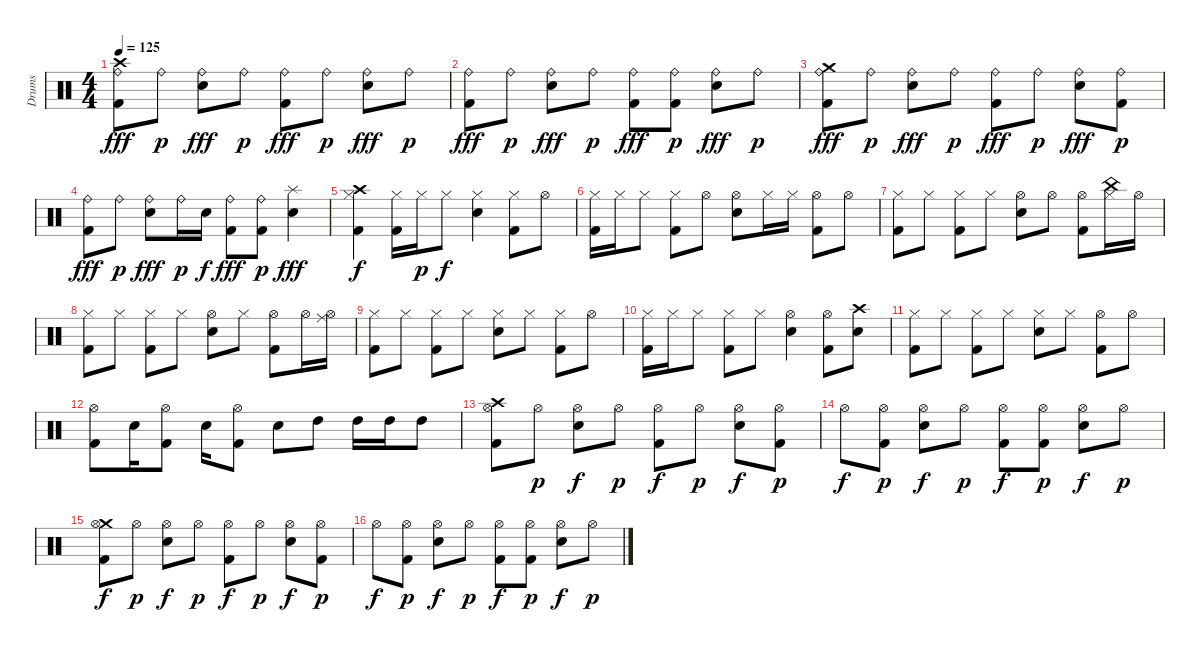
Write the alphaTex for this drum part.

\track ("Drums" "Drums") {instrument percussion}
\staff {score}
\articulation defaults
\ts (4 4)
\tempo 125
\clef neutral
\ks c
("Crash high (hit)" "Ride (bell)" "Kick (hit) 2").8{dy fff} "Ride (bell)".8{dy p} ("Ride (bell)" "Electric Snare (hit)").8{dy fff} "Ride (bell)".8{dy p} ("Ride (bell)" "Kick (hit) 2").8{dy fff} "Ride (bell)".8{dy p} ("Ride (bell)" "Electric Snare (hit)").8{dy fff} "Ride (bell)".8{dy p} |
("Ride (bell)" "Kick (hit) 2").8{dy fff} "Ride (bell)".8{dy p} ("Ride (bell)" "Electric Snare (hit)").8{dy fff} "Ride (bell)".8{dy p} ("Ride (bell)" "Kick (hit) 2").8{dy fff} ("Ride (bell)" "Kick (hit) 2").8{dy p} ("Ride (bell)" "Electric Snare (hit)").8{dy fff} "Ride (bell)".8{dy p} |
("Crash medium (hit)" "Ride (bell)" "Kick (hit) 2").8{dy fff} "Ride (bell)".8{dy p} ("Ride (bell)" "Electric Snare (hit)").8{dy fff} "Ride (bell)".8{dy p} ("Ride (bell)" "Kick (hit) 2").8{dy fff} "Ride (bell)".8{dy p} ("Ride (bell)" "Electric Snare (hit)").8{dy fff} ("Ride (bell)" "Kick (hit) 2").8{dy p} |
("Ride (bell)" "Kick (hit) 2").8{dy fff} "Ride (bell)".8{dy p} ("Ride (bell)" "Electric Snare (hit)").8{dy fff} "Ride (bell)".16{dy p} "Electric Snare (hit)".16{dy f} ("Ride (bell)" "Kick (hit) 2").8{dy fff} ("Ride (bell)" "Kick (hit) 2").8{dy p} ("Splash (hit)" "Electric Snare (hit)").4{dy fff} |
("Crash high (hit)" "Hi-Hat (closed)" "Kick (hit) 2").4{dy f} ("Hi-Hat (closed)" "Kick (hit) 2").16 "Hi-Hat (closed)".16{dy p} "Hi-Hat (closed)".8{dy f} ("Hi-Hat (closed)" "Electric Snare (hit)").4 ("Hi-Hat (closed)" "Kick (hit) 2").8 "Hi-Hat (open)".8 |
("Hi-Hat (closed)" "Kick (hit) 2").16 "Hi-Hat (closed)".16 "Hi-Hat (closed)".8 ("Hi-Hat (closed)" "Kick (hit) 2").8 "Hi-Hat (open)".8 ("Hi-Hat (open)" "Electric Snare (hit)").8 "Hi-Hat (closed)".16 "Hi-Hat (closed)".16 ("Hi-Hat (open)" "Kick (hit) 2").8 "Hi-Hat (open)".8 |
("Hi-Hat (closed)" "Kick (hit) 2").8 "Hi-Hat (closed)".8 ("Hi-Hat (closed)" "Kick (hit) 2").8 "Hi-Hat (closed)".8 ("Hi-Hat (open)" "Electric Snare (hit)").8 "Hi-Hat (open)".8 ("Hi-Hat (open)" "Kick (hit) 2").8 ("China (hit)" "Hi-Hat (closed)").16 "Hi-Hat (open)".16 |
("Hi-Hat (closed)" "Kick (hit) 2").8 "Hi-Hat (closed)".8 ("Hi-Hat (closed)" "Kick (hit) 2").8 "Hi-Hat (closed)".8 ("Hi-Hat (open)" "Electric Snare (hit)").8 "Hi-Hat (closed)".8 ("Hi-Hat (open)" "Kick (hit) 2").8 "Hi-Hat (open)".16 ("Ride (middle)" "Hi-Hat (open)").16 |
("Hi-Hat (closed)" "Kick (hit) 2").8 "Hi-Hat (closed)".8 ("Hi-Hat (closed)" "Kick (hit) 2").8 "Hi-Hat (closed)".8 ("Hi-Hat (closed)" "Electric Snare (hit)").8 "Hi-Hat (closed)".8 ("Hi-Hat (closed)" "Kick (hit) 2").8 "Hi-Hat (open)".8 |
("Hi-Hat (closed)" "Kick (hit) 2").16 "Hi-Hat (closed)".16 "Hi-Hat (closed)".8 ("Hi-Hat (closed)" "Kick (hit) 2").8 "Hi-Hat (closed)".8 ("Hi-Hat (open)" "Electric Snare (hit)").4 ("Hi-Hat (open)" "Kick (hit) 2").8 ("Crash high (hit)" "Electric Snare (hit)").8 |
("Hi-Hat (closed)" "Kick (hit) 2").8 "Hi-Hat (closed)".8 ("Hi-Hat (closed)" "Kick (hit) 2").8 "Hi-Hat (closed)".8 ("Hi-Hat (closed)" "Electric Snare (hit)").8 "Hi-Hat (closed)".8 ("Hi-Hat (open)" "Kick (hit) 2").8 "Hi-Hat (open)".8 |
("Hi-Hat (open)" "Kick (hit) 2").8 "Electric Snare (hit)".16 ("Hi-Hat (open)" "Kick (hit) 2").8 "Electric Snare (hit)".16 ("Hi-Hat (open)" "Kick (hit) 2").8 "Electric Snare (hit)".8 "High Tom (hit)".8 "High Tom (hit)".16 "High Tom (hit)".16 "High Tom (hit)".8 |
("Crash high (hit)" "Hi-Hat (open)" "Kick (hit) 2").8 "Hi-Hat (open)".8{dy p} ("Hi-Hat (open)" "Electric Snare (hit)").8{dy f} "Hi-Hat (open)".8{dy p} ("Hi-Hat (open)" "Kick (hit) 2").8{dy f} "Hi-Hat (open)".8{dy p} ("Hi-Hat (open)" "Electric Snare (hit)").8{dy f} ("Hi-Hat (open)" "Kick (hit) 2").8{dy p} |
"Hi-Hat (open)".8{dy f} ("Hi-Hat (open)" "Kick (hit) 2").8{dy p} ("Hi-Hat (open)" "Electric Snare (hit)").8{dy f} "Hi-Hat (open)".8{dy p} ("Hi-Hat (open)" "Kick (hit) 2").8{dy f} ("Hi-Hat (open)" "Kick (hit) 2").8{dy p} ("Hi-Hat (open)" "Electric Snare (hit)").8{dy f} "Hi-Hat (open)".8{dy p} |
("Crash medium (hit)" "Hi-Hat (open)" "Kick (hit) 2").8{dy f} "Hi-Hat (open)".8{dy p} ("Hi-Hat (open)" "Electric Snare (hit)").8{dy f} "Hi-Hat (open)".8{dy p} ("Hi-Hat (open)" "Kick (hit) 2").8{dy f} "Hi-Hat (open)".8{dy p} ("Hi-Hat (open)" "Electric Snare (hit)").8{dy f} ("Hi-Hat (open)" "Kick (hit) 2").8{dy p} |
"Hi-Hat (open)".8{dy f} ("Hi-Hat (open)" "Kick (hit) 2").8{dy p} ("Hi-Hat (open)" "Electric Snare (hit)").8{dy f} "Hi-Hat (open)".8{dy p} ("Hi-Hat (open)" "Kick (hit) 2").8{dy f} ("Hi-Hat (open)" "Kick (hit) 2").8{dy p} ("Hi-Hat (open)" "Electric Snare (hit)").8{dy f} "Hi-Hat (open)".8{dy p}
